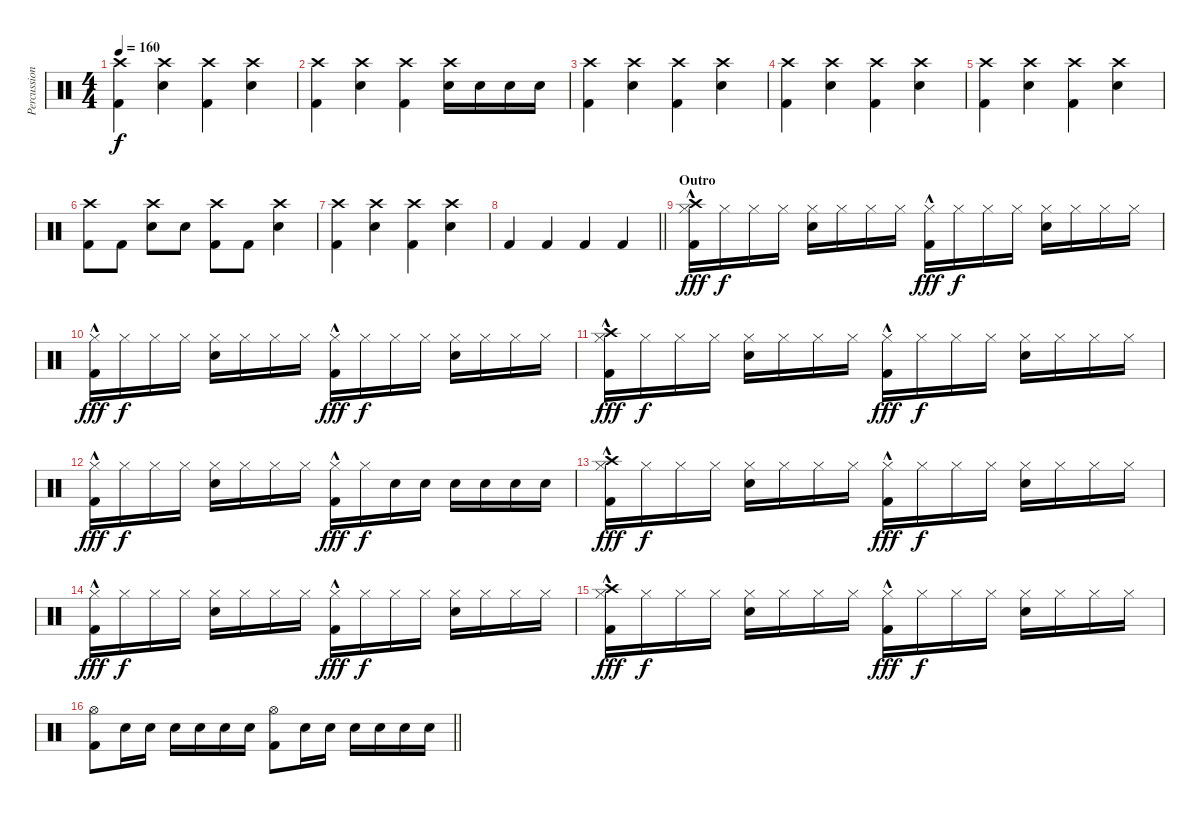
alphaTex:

\track ("Percussion" "Percussion") {instrument percussion}
\staff {score}
\articulation defaults
\ts (4 4)
\tempo 160
\clef neutral
\ks c
("Crash high (hit)" "Kick (hit) 2").4{dy f} ("Crash high (hit)" "Snare (hit) 2").4 ("Crash high (hit)" "Kick (hit) 2").4 ("Crash high (hit)" "Snare (hit) 2").4 |
("Crash high (hit)" "Kick (hit) 2").4 ("Crash high (hit)" "Snare (hit) 2").4 ("Crash high (hit)" "Kick (hit) 2").4 ("Crash high (hit)" "Snare (hit) 2").16 "Snare (hit) 2".16 "Snare (hit) 2".16 "Snare (hit) 2".16 |
("Crash high (hit)" "Kick (hit) 2").4 ("Crash high (hit)" "Snare (hit) 2").4 ("Crash high (hit)" "Kick (hit) 2").4 ("Crash high (hit)" "Snare (hit) 2").4 |
("Crash high (hit)" "Kick (hit) 2").4 ("Crash high (hit)" "Snare (hit) 2").4 ("Crash high (hit)" "Kick (hit) 2").4 ("Crash high (hit)" "Snare (hit) 2").4 |
("Crash high (hit)" "Kick (hit) 2").4 ("Crash high (hit)" "Snare (hit) 2").4 ("Crash high (hit)" "Kick (hit) 2").4 ("Crash high (hit)" "Snare (hit) 2").4 |
("Crash high (hit)" "Kick (hit) 2").8 "Kick (hit) 2".8 ("Crash high (hit)" "Snare (hit) 2").8 "Snare (hit) 2".8 ("Crash high (hit)" "Kick (hit) 2").8 "Kick (hit) 2".8 ("Crash high (hit)" "Snare (hit) 2").4 |
("Crash high (hit)" "Kick (hit) 2").4 ("Crash high (hit)" "Snare (hit) 2").4 ("Crash high (hit)" "Kick (hit) 2").4 ("Crash high (hit)" "Snare (hit) 2").4 |
\barLineRight lightlight "Kick (hit) 2".4 "Kick (hit) 2".4 "Kick (hit) 2".4 "Kick (hit) 2".4
|
\section ("" "Outro")
("Hi-Hat (closed)"{hac} "Crash high (hit)" "Kick (hit) 2").16{dy fff} "Hi-Hat (closed)".16{dy f} "Hi-Hat (closed)".16 "Hi-Hat (closed)".16 ("Hi-Hat (closed)" "Snare (hit) 2").16 "Hi-Hat (closed)".16 "Hi-Hat (closed)".16 "Hi-Hat (closed)".16 ("Hi-Hat (closed)"{hac} "Kick (hit) 2").16{dy fff} "Hi-Hat (closed)".16{dy f} "Hi-Hat (closed)".16 "Hi-Hat (closed)".16 ("Hi-Hat (closed)" "Snare (hit) 2").16 "Hi-Hat (closed)".16 "Hi-Hat (closed)".16 "Hi-Hat (closed)".16 |
("Hi-Hat (closed)"{hac} "Kick (hit) 2").16{dy fff} "Hi-Hat (closed)".16{dy f} "Hi-Hat (closed)".16 "Hi-Hat (closed)".16 ("Hi-Hat (closed)" "Snare (hit) 2").16 "Hi-Hat (closed)".16 "Hi-Hat (closed)".16 "Hi-Hat (closed)".16 ("Hi-Hat (closed)"{hac} "Kick (hit) 2").16{dy fff} "Hi-Hat (closed)".16{dy f} "Hi-Hat (closed)".16 "Hi-Hat (closed)".16 ("Hi-Hat (closed)" "Snare (hit) 2").16 "Hi-Hat (closed)".16 "Hi-Hat (closed)".16 "Hi-Hat (closed)".16 |
("Hi-Hat (closed)"{hac} "Crash high (hit)" "Kick (hit) 2").16{dy fff} "Hi-Hat (closed)".16{dy f} "Hi-Hat (closed)".16 "Hi-Hat (closed)".16 ("Hi-Hat (closed)" "Snare (hit) 2").16 "Hi-Hat (closed)".16 "Hi-Hat (closed)".16 "Hi-Hat (closed)".16 ("Hi-Hat (closed)"{hac} "Kick (hit) 2").16{dy fff} "Hi-Hat (closed)".16{dy f} "Hi-Hat (closed)".16 "Hi-Hat (closed)".16 ("Hi-Hat (closed)" "Snare (hit) 2").16 "Hi-Hat (closed)".16 "Hi-Hat (closed)".16 "Hi-Hat (closed)".16 |
("Hi-Hat (closed)"{hac} "Kick (hit) 2").16{dy fff} "Hi-Hat (closed)".16{dy f} "Hi-Hat (closed)".16 "Hi-Hat (closed)".16 ("Hi-Hat (closed)" "Snare (hit) 2").16 "Hi-Hat (closed)".16 "Hi-Hat (closed)".16 "Hi-Hat (closed)".16 ("Hi-Hat (closed)"{hac} "Kick (hit) 2").16{dy fff} "Hi-Hat (closed)".16{dy f} "Snare (hit) 2".16 "Snare (hit) 2".16 "Snare (hit) 2".16 "Snare (hit) 2".16 "Snare (hit) 2".16 "Snare (hit) 2".16 |
("Hi-Hat (closed)"{hac} "Crash high (hit)" "Kick (hit) 2").16{dy fff} "Hi-Hat (closed)".16{dy f} "Hi-Hat (closed)".16 "Hi-Hat (closed)".16 ("Hi-Hat (closed)" "Snare (hit) 2").16 "Hi-Hat (closed)".16 "Hi-Hat (closed)".16 "Hi-Hat (closed)".16 ("Hi-Hat (closed)"{hac} "Kick (hit) 2").16{dy fff} "Hi-Hat (closed)".16{dy f} "Hi-Hat (closed)".16 "Hi-Hat (closed)".16 ("Hi-Hat (closed)" "Snare (hit) 2").16 "Hi-Hat (closed)".16 "Hi-Hat (closed)".16 "Hi-Hat (closed)".16 |
("Hi-Hat (closed)"{hac} "Kick (hit) 2").16{dy fff} "Hi-Hat (closed)".16{dy f} "Hi-Hat (closed)".16 "Hi-Hat (closed)".16 ("Hi-Hat (closed)" "Snare (hit) 2").16 "Hi-Hat (closed)".16 "Hi-Hat (closed)".16 "Hi-Hat (closed)".16 ("Hi-Hat (closed)"{hac} "Kick (hit) 2").16{dy fff} "Hi-Hat (closed)".16{dy f} "Hi-Hat (closed)".16 "Hi-Hat (closed)".16 ("Hi-Hat (closed)" "Snare (hit) 2").16 "Hi-Hat (closed)".16 "Hi-Hat (closed)".16 "Hi-Hat (closed)".16 |
("Hi-Hat (closed)"{hac} "Crash high (hit)" "Kick (hit) 2").16{dy fff} "Hi-Hat (closed)".16{dy f} "Hi-Hat (closed)".16 "Hi-Hat (closed)".16 ("Hi-Hat (closed)" "Snare (hit) 2").16 "Hi-Hat (closed)".16 "Hi-Hat (closed)".16 "Hi-Hat (closed)".16 ("Hi-Hat (closed)"{hac} "Kick (hit) 2").16{dy fff} "Hi-Hat (closed)".16{dy f} "Hi-Hat (closed)".16 "Hi-Hat (closed)".16 ("Hi-Hat (closed)" "Snare (hit) 2").16 "Hi-Hat (closed)".16 "Hi-Hat (closed)".16 "Hi-Hat (closed)".16 |
\barLineRight lightlight
("Hi-Hat (open)" "Kick (hit) 2").8 "Snare (hit) 2".16 "Snare (hit) 2".16 "Snare (hit) 2".16 "Snare (hit) 2".16 "Snare (hit) 2".16 "Snare (hit) 2".16 ("Hi-Hat (open)" "Kick (hit) 2").8 "Snare (hit) 2".16 "Snare (hit) 2".16 "Snare (hit) 2".16 "Snare (hit) 2".16 "Snare (hit) 2".16 "Snare (hit) 2".16
